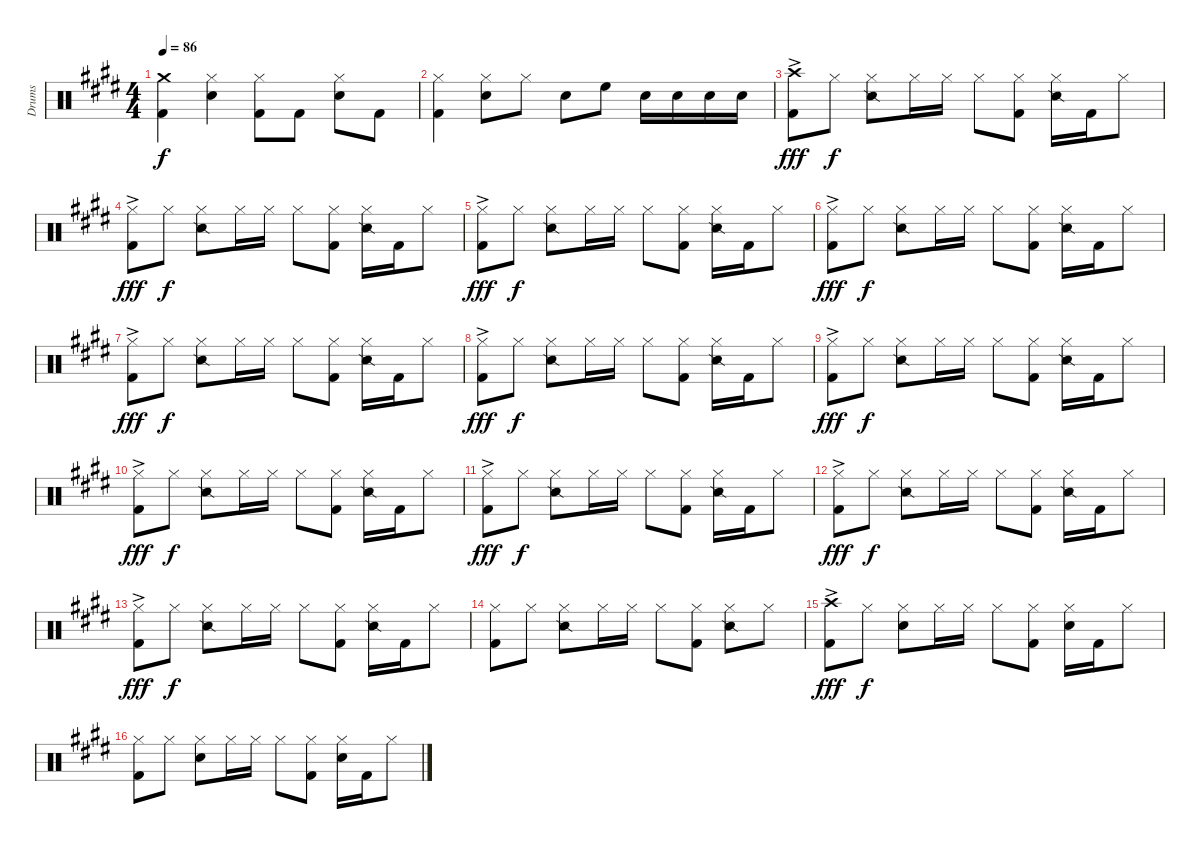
\track ("Drums" "Drums") {instrument percussion}
\staff {score}
\articulation defaults
\ts (4 4)
\tempo 86
\clef neutral
\ks e
("Crash medium (hit)" "Kick (hit) 2").4{dy f} ("Hi-Hat (closed)" "Snare (hit) 2").4 ("Hi-Hat (closed)" "Kick (hit) 2").8 "Kick (hit) 2".8 ("Hi-Hat (closed)" "Snare (hit) 2").8 "Kick (hit) 2".8 |
("Hi-Hat (closed)" "Kick (hit) 2").4 ("Hi-Hat (closed)" "Snare (hit) 2").8 "Hi-Hat (closed)".8 "Snare (hit) 2".8 "High Floor Tom (hit)".8 "Snare (hit) 2".16 "Snare (hit) 2".16 "Snare (hit) 2".16 "Snare (hit) 2".16 |
("Crash high (hit)" "Kick (hit) 2"{ac}).8{dy fff} "Hi-Hat (closed)".8{dy f} ("Hi-Hat (closed)" "Snare (side stick) 2").8 "Hi-Hat (closed)".16 "Hi-Hat (closed)".16 "Hi-Hat (closed)".8 ("Hi-Hat (closed)" "Kick (hit) 2").8 ("Hi-Hat (closed)" "Snare (side stick) 2").16 "Kick (hit) 2".16 "Hi-Hat (closed)".8 |
("Hi-Hat (closed)" "Kick (hit) 2"{ac}).8{dy fff} "Hi-Hat (closed)".8{dy f} ("Hi-Hat (closed)" "Snare (side stick) 2").8 "Hi-Hat (closed)".16 "Hi-Hat (closed)".16 "Hi-Hat (closed)".8 ("Hi-Hat (closed)" "Kick (hit) 2").8 ("Hi-Hat (closed)" "Snare (side stick) 2").16 "Kick (hit) 2".16 "Hi-Hat (closed)".8 |
("Hi-Hat (closed)" "Kick (hit) 2"{ac}).8{dy fff} "Hi-Hat (closed)".8{dy f} ("Hi-Hat (closed)" "Snare (side stick) 2").8 "Hi-Hat (closed)".16 "Hi-Hat (closed)".16 "Hi-Hat (closed)".8 ("Hi-Hat (closed)" "Kick (hit) 2").8 ("Hi-Hat (closed)" "Snare (side stick) 2").16 "Kick (hit) 2".16 "Hi-Hat (closed)".8 |
("Hi-Hat (closed)" "Kick (hit) 2"{ac}).8{dy fff} "Hi-Hat (closed)".8{dy f} ("Hi-Hat (closed)" "Snare (side stick) 2").8 "Hi-Hat (closed)".16 "Hi-Hat (closed)".16 "Hi-Hat (closed)".8 ("Hi-Hat (closed)" "Kick (hit) 2").8 ("Hi-Hat (closed)" "Snare (side stick) 2").16 "Kick (hit) 2".16 "Hi-Hat (closed)".8 |
("Hi-Hat (closed)" "Kick (hit) 2"{ac}).8{dy fff} "Hi-Hat (closed)".8{dy f} ("Hi-Hat (closed)" "Snare (side stick) 2").8 "Hi-Hat (closed)".16 "Hi-Hat (closed)".16 "Hi-Hat (closed)".8 ("Hi-Hat (closed)" "Kick (hit) 2").8 ("Hi-Hat (closed)" "Snare (side stick) 2").16 "Kick (hit) 2".16 "Hi-Hat (closed)".8 |
("Hi-Hat (closed)" "Kick (hit) 2"{ac}).8{dy fff} "Hi-Hat (closed)".8{dy f} ("Hi-Hat (closed)" "Snare (side stick) 2").8 "Hi-Hat (closed)".16 "Hi-Hat (closed)".16 "Hi-Hat (closed)".8 ("Hi-Hat (closed)" "Kick (hit) 2").8 ("Hi-Hat (closed)" "Snare (side stick) 2").16 "Kick (hit) 2".16 "Hi-Hat (closed)".8 |
("Hi-Hat (closed)" "Kick (hit) 2"{ac}).8{dy fff} "Hi-Hat (closed)".8{dy f} ("Hi-Hat (closed)" "Snare (side stick) 2").8 "Hi-Hat (closed)".16 "Hi-Hat (closed)".16 "Hi-Hat (closed)".8 ("Hi-Hat (closed)" "Kick (hit) 2").8 ("Hi-Hat (closed)" "Snare (side stick) 2").16 "Kick (hit) 2".16 "Hi-Hat (closed)".8 |
("Hi-Hat (closed)" "Kick (hit) 2"{ac}).8{dy fff} "Hi-Hat (closed)".8{dy f} ("Hi-Hat (closed)" "Snare (side stick) 2").8 "Hi-Hat (closed)".16 "Hi-Hat (closed)".16 "Hi-Hat (closed)".8 ("Hi-Hat (closed)" "Kick (hit) 2").8 ("Hi-Hat (closed)" "Snare (side stick) 2").16 "Kick (hit) 2".16 "Hi-Hat (closed)".8 |
("Hi-Hat (closed)" "Kick (hit) 2"{ac}).8{dy fff} "Hi-Hat (closed)".8{dy f} ("Hi-Hat (closed)" "Snare (side stick) 2").8 "Hi-Hat (closed)".16 "Hi-Hat (closed)".16 "Hi-Hat (closed)".8 ("Hi-Hat (closed)" "Kick (hit) 2").8 ("Hi-Hat (closed)" "Snare (side stick) 2").16 "Kick (hit) 2".16 "Hi-Hat (closed)".8 |
("Hi-Hat (closed)" "Kick (hit) 2"{ac}).8{dy fff} "Hi-Hat (closed)".8{dy f} ("Hi-Hat (closed)" "Snare (side stick) 2").8 "Hi-Hat (closed)".16 "Hi-Hat (closed)".16 "Hi-Hat (closed)".8 ("Hi-Hat (closed)" "Kick (hit) 2").8 ("Hi-Hat (closed)" "Snare (side stick) 2").16 "Kick (hit) 2".16 "Hi-Hat (closed)".8 |
("Hi-Hat (closed)" "Kick (hit) 2"{ac}).8{dy fff} "Hi-Hat (closed)".8{dy f} ("Hi-Hat (closed)" "Snare (side stick) 2").8 "Hi-Hat (closed)".16 "Hi-Hat (closed)".16 "Hi-Hat (closed)".8 ("Hi-Hat (closed)" "Kick (hit) 2").8 ("Hi-Hat (closed)" "Snare (side stick) 2").16 "Kick (hit) 2".16 "Hi-Hat (closed)".8 |
("Hi-Hat (closed)" "Kick (hit) 2").8 "Hi-Hat (closed)".8 ("Hi-Hat (closed)" "Snare (side stick) 2").8 "Hi-Hat (closed)".16 "Hi-Hat (closed)".16 "Hi-Hat (closed)".8 ("Hi-Hat (closed)" "Kick (hit) 2").8 ("Hi-Hat (closed)" "Snare (side stick) 2").8 "Hi-Hat (closed)".8 |
("Crash high (hit)"{ac} "Kick (hit) 2").8{dy fff} "Hi-Hat (closed)".8{dy f} ("Hi-Hat (closed)" "Snare (hit) 2").8 "Hi-Hat (closed)".16 "Hi-Hat (closed)".16 "Hi-Hat (closed)".8 ("Hi-Hat (closed)" "Kick (hit) 2").8 ("Hi-Hat (closed)" "Snare (hit) 2").16 "Kick (hit) 2".16 "Hi-Hat (closed)".8 |
("Hi-Hat (closed)" "Kick (hit) 2").8 "Hi-Hat (closed)".8 ("Hi-Hat (closed)" "Snare (hit) 2").8 "Hi-Hat (closed)".16 "Hi-Hat (closed)".16 "Hi-Hat (closed)".8 ("Hi-Hat (closed)" "Kick (hit) 2").8 ("Hi-Hat (closed)" "Snare (hit) 2").16 "Kick (hit) 2".16 "Hi-Hat (closed)".8
